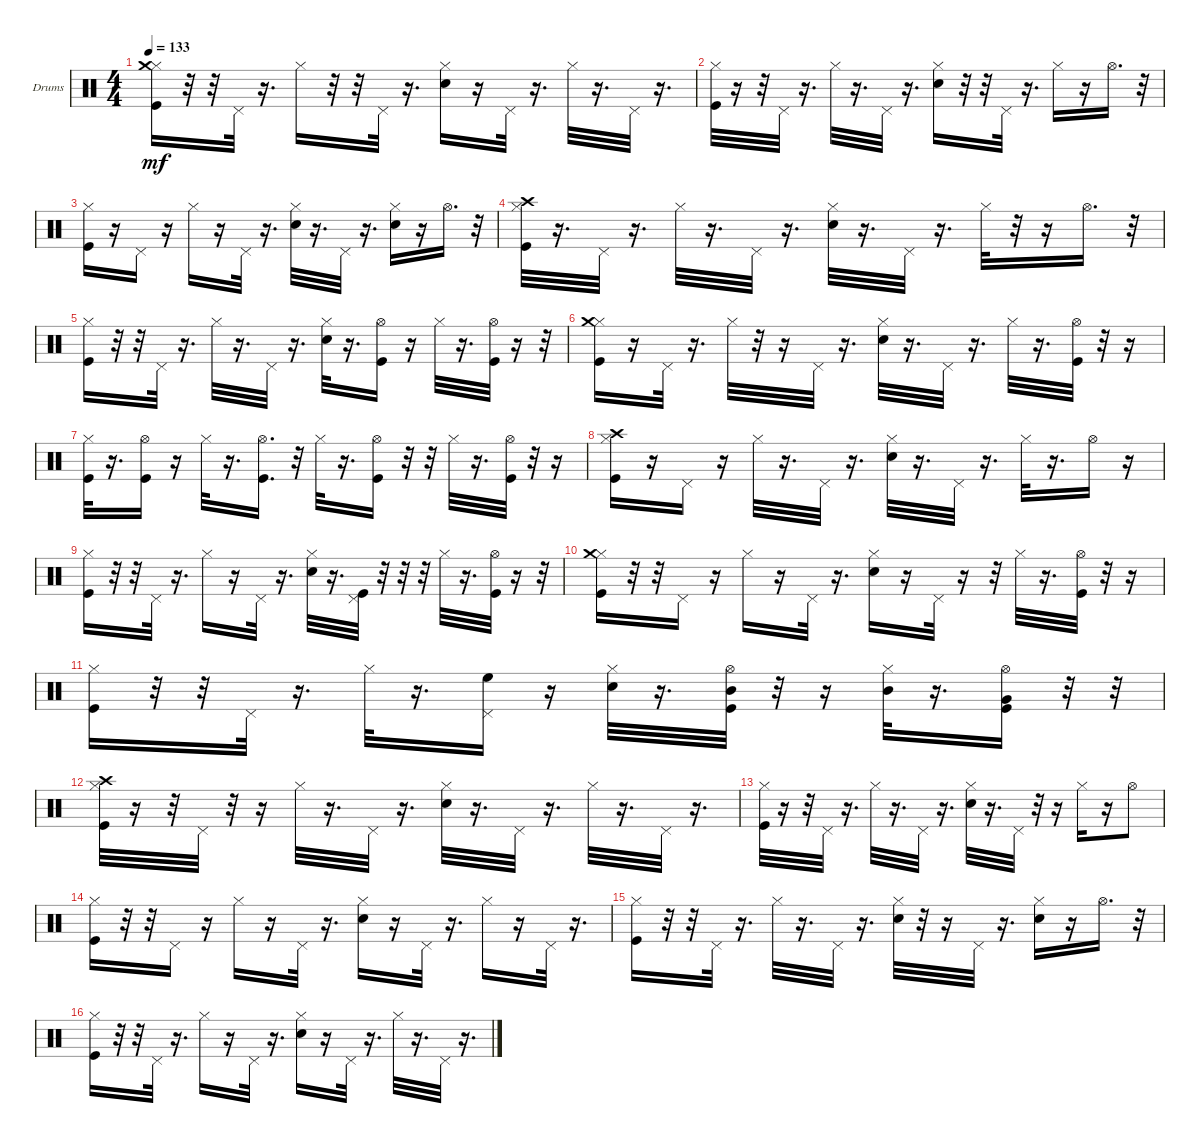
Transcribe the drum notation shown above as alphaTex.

\defaultSystemsLayout 4
\bracketExtendMode groupsimilarinstruments
\firstSystemTrackNameOrientation horizontal
\otherSystemsTrackNameOrientation horizontal
\track ("Drumkit" "Drums") {instrument percussion}
\staff {score}
\articulation defaults
\ts (4 4)
\tempo 133
\clef neutral
\ks c
("Kick (hit)" "Hi-Hat (closed)" "Crash medium (hit)").16{dy mf} r.32 r.32 "Pedal Hi-Hat (hit)".32 r.16{d} "Hi-Hat (closed)".16 r.32 r.32 "Pedal Hi-Hat (hit)".32 r.16{d} ("Snare (hit) 2" "Hi-Hat (closed)").16 r.16 "Pedal Hi-Hat (hit)".32 r.16{d} "Hi-Hat (closed)".32 r.16{d} "Pedal Hi-Hat (hit)".32 r.16{d} |
("Kick (hit)" "Hi-Hat (closed)").32 r.16 r.32 "Pedal Hi-Hat (hit)".32 r.16{d} "Hi-Hat (closed)".32 r.16{d} "Pedal Hi-Hat (hit)".32 r.16{d} ("Snare (hit) 2" "Hi-Hat (closed)").16 r.32 r.32 "Pedal Hi-Hat (hit)".32 r.16{d} "Hi-Hat (closed)".16 r.16 "Hi-Hat (open)".16{d} r.32 |
("Kick (hit)" "Hi-Hat (closed)").16 r.16 "Pedal Hi-Hat (hit)".16 r.16 "Hi-Hat (closed)".16 r.16 "Pedal Hi-Hat (hit)".32 r.16{d} ("Snare (hit) 2" "Hi-Hat (closed)").32 r.16{d} "Pedal Hi-Hat (hit)".32 r.16{d} ("Snare (hit) 2" "Hi-Hat (closed)").16 r.16 "Hi-Hat (open)".16{d} r.32 |
("Kick (hit)" "Hi-Hat (closed)" "Crash high (hit)").32 r.16{d} "Pedal Hi-Hat (hit)".32 r.16{d} "Hi-Hat (closed)".32 r.16{d} "Pedal Hi-Hat (hit)".32 r.16{d} ("Snare (hit) 2" "Hi-Hat (closed)").32 r.16{d} "Pedal Hi-Hat (hit)".32 r.16{d} "Hi-Hat (closed)".32 r.32 r.16 "Hi-Hat (open)".16{d} r.32 |
("Kick (hit)" "Hi-Hat (closed)").16 r.32 r.32 "Pedal Hi-Hat (hit)".32 r.16{d} "Hi-Hat (closed)".32 r.16{d} "Pedal Hi-Hat (hit)".32 r.16{d} ("Snare (hit) 2" "Hi-Hat (closed)").32 r.16{d} ("Kick (hit)" "Hi-Hat (open)").16 r.16 "Hi-Hat (closed)".32 r.16{d} ("Kick (hit)" "Hi-Hat (open)").32 r.16 r.32 |
("Kick (hit)" "Hi-Hat (closed)" "Crash medium (hit)").16 r.16 "Pedal Hi-Hat (hit)".32 r.16{d} "Hi-Hat (closed)".32 r.32 r.16 "Pedal Hi-Hat (hit)".32 r.16{d} ("Snare (hit) 2" "Hi-Hat (closed)").32 r.16{d} "Pedal Hi-Hat (hit)".32 r.16{d} "Hi-Hat (closed)".32 r.16{d} ("Kick (hit)" "Hi-Hat (open)").32 r.32 r.16 |
("Kick (hit)" "Hi-Hat (closed)").32 r.16{d} ("Kick (hit)" "Hi-Hat (open)").16 r.16 "Hi-Hat (closed)".32 r.16{d} ("Kick (hit)" "Hi-Hat (open)").16{d} r.32 "Hi-Hat (closed)".32 r.16{d} ("Kick (hit)" "Hi-Hat (open)").16 r.32 r.32 "Hi-Hat (closed)".32 r.16{d} ("Kick (hit)" "Hi-Hat (open)").32 r.32 r.16 |
("Kick (hit)" "Hi-Hat (closed)" "Crash high (hit)").16 r.16 "Pedal Hi-Hat (hit)".16 r.16 "Hi-Hat (closed)".32 r.16{d} "Pedal Hi-Hat (hit)".32 r.16{d} ("Snare (hit) 2" "Hi-Hat (closed)").32 r.16{d} "Pedal Hi-Hat (hit)".32 r.16{d} "Hi-Hat (closed)".32 r.16{d} "Hi-Hat (open)".16 r.16 |
("Kick (hit)" "Hi-Hat (closed)").16 r.32 r.32 "Pedal Hi-Hat (hit)".32 r.16{d} "Hi-Hat (closed)".16 r.16 "Pedal Hi-Hat (hit)".32 r.16{d} ("Snare (hit) 2" "Hi-Hat (closed)").32 r.16{d} ("Kick (hit)" "Pedal Hi-Hat (hit)").32 r.32 r.32 r.32 "Hi-Hat (closed)".32 r.16{d} ("Kick (hit)" "Hi-Hat (open)").32 r.16 r.32 |
("Kick (hit)" "Hi-Hat (closed)" "Crash medium (hit)").16 r.32 r.32 "Pedal Hi-Hat (hit)".16 r.16 "Hi-Hat (closed)".16 r.16 "Pedal Hi-Hat (hit)".32 r.16{d} ("Snare (hit) 2" "Hi-Hat (closed)").16 r.16 "Pedal Hi-Hat (hit)".32 r.16 r.32 "Hi-Hat (closed)".32 r.16{d} ("Kick (hit)" "Hi-Hat (open)").32 r.32 r.16 |
("Kick (hit)" "Hi-Hat (closed)").16 r.32 r.32 "Pedal Hi-Hat (hit)".32 r.16{d} "Hi-Hat (closed)".32 r.16{d} ("Pedal Hi-Hat (hit)" "High Floor Tom (hit)").16 r.16 ("Snare (hit) 2" "Hi-Hat (closed)").32 r.16{d} ("Kick (hit)" "Hi-Hat (open)" "Mid Tom (hit)").32 r.32 r.16 ("Hi-Hat (closed)" "Mid Tom (hit)").32 r.16{d} ("Kick (hit)" "Hi-Hat (open)" "Very Low Tom (hit)").16 r.32 r.32 |
("Kick (hit)" "Hi-Hat (closed)" "Crash high (hit)").32 r.16 r.32 "Pedal Hi-Hat (hit)".32 r.32 r.16 "Hi-Hat (closed)".32 r.16{d} "Pedal Hi-Hat (hit)".32 r.16{d} ("Snare (hit) 2" "Hi-Hat (closed)").32 r.16{d} "Pedal Hi-Hat (hit)".32 r.16{d} "Hi-Hat (closed)".32 r.16{d} "Pedal Hi-Hat (hit)".32 r.16{d} |
("Kick (hit)" "Hi-Hat (closed)").32 r.16 r.32 "Pedal Hi-Hat (hit)".32 r.16{d} "Hi-Hat (closed)".32 r.16{d} "Pedal Hi-Hat (hit)".32 r.16{d} ("Snare (hit) 2" "Hi-Hat (closed)").32 r.16{d} "Pedal Hi-Hat (hit)".32 r.32 r.16 "Hi-Hat (closed)".16 r.16 "Hi-Hat (open)".8 |
("Kick (hit)" "Hi-Hat (closed)").16 r.32 r.32 "Pedal Hi-Hat (hit)".16 r.16 "Hi-Hat (closed)".16 r.16 "Pedal Hi-Hat (hit)".32 r.16{d} ("Snare (hit) 2" "Hi-Hat (closed)").16 r.16 "Pedal Hi-Hat (hit)".32 r.16{d} "Hi-Hat (closed)".16 r.16 "Pedal Hi-Hat (hit)".32 r.16{d} |
("Kick (hit)" "Hi-Hat (closed)").16 r.32 r.32 "Pedal Hi-Hat (hit)".32 r.16{d} "Hi-Hat (closed)".32 r.16{d} "Pedal Hi-Hat (hit)".32 r.16{d} ("Snare (hit) 2" "Hi-Hat (closed)").32 r.32 r.16 "Pedal Hi-Hat (hit)".32 r.16{d} ("Snare (hit) 2" "Hi-Hat (closed)").16 r.16 "Hi-Hat (open)".16{d} r.32 |
("Kick (hit)" "Hi-Hat (closed)").16 r.32 r.32 "Pedal Hi-Hat (hit)".32 r.16{d} "Hi-Hat (closed)".16 r.16 "Pedal Hi-Hat (hit)".32 r.16{d} ("Snare (hit) 2" "Hi-Hat (closed)").16 r.16 "Pedal Hi-Hat (hit)".32 r.16{d} "Hi-Hat (closed)".32 r.16{d} "Pedal Hi-Hat (hit)".32 r.16{d}
